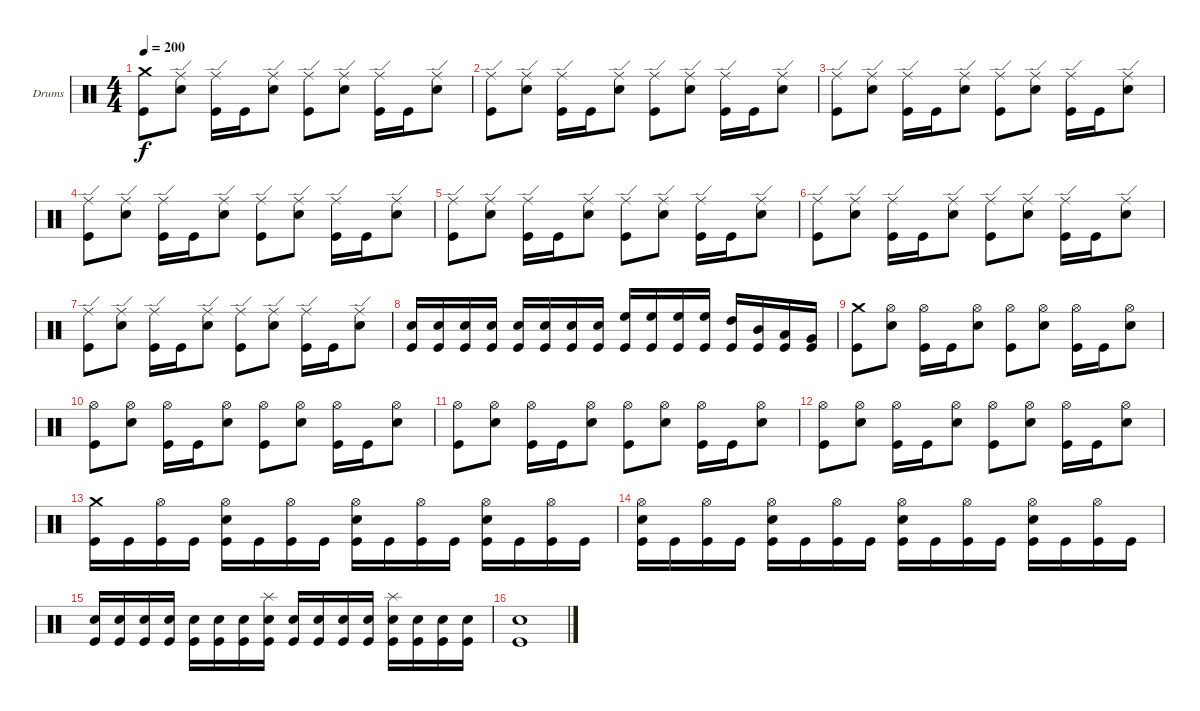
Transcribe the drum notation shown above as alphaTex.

\bracketExtendMode groupsimilarinstruments
\firstSystemTrackNameOrientation horizontal
\otherSystemsTrackNameOrientation horizontal
\track ("Drumkit" "Drums") {instrument percussion}
\staff {score}
\articulation defaults
\ts (4 4)
\section ("" "")
\tempo 200
\clef neutral
\ks aminor
("Kick (hit)" "Crash medium (hit)").8{dy f} ("Snare (hit) 2" "Ride (edge)").8 ("Kick (hit)" "Ride (edge)").16 "Kick (hit)".16 ("Snare (hit) 2" "Ride (edge)").8 ("Kick (hit)" "Ride (edge)").8 ("Snare (hit) 2" "Ride (edge)").8 ("Kick (hit)" "Ride (edge)").16 "Kick (hit)".16 ("Snare (hit) 2" "Ride (edge)").8 |
("Kick (hit)" "Ride (edge)").8 ("Snare (hit) 2" "Ride (edge)").8 ("Kick (hit)" "Ride (edge)").16 "Kick (hit)".16 ("Snare (hit) 2" "Ride (edge)").8 ("Kick (hit)" "Ride (edge)").8 ("Snare (hit) 2" "Ride (edge)").8 ("Kick (hit)" "Ride (edge)").16 "Kick (hit)".16 ("Snare (hit) 2" "Ride (edge)").8 |
("Kick (hit)" "Ride (edge)").8 ("Snare (hit) 2" "Ride (edge)").8 ("Kick (hit)" "Ride (edge)").16 "Kick (hit)".16 ("Snare (hit) 2" "Ride (edge)").8 ("Kick (hit)" "Ride (edge)").8 ("Snare (hit) 2" "Ride (edge)").8 ("Kick (hit)" "Ride (edge)").16 "Kick (hit)".16 ("Snare (hit) 2" "Ride (edge)").8 |
("Kick (hit)" "Ride (edge)").8 ("Snare (hit) 2" "Ride (edge)").8 ("Kick (hit)" "Ride (edge)").16 "Kick (hit)".16 ("Snare (hit) 2" "Ride (edge)").8 ("Kick (hit)" "Ride (edge)").8 ("Snare (hit) 2" "Ride (edge)").8 ("Kick (hit)" "Ride (edge)").16 "Kick (hit)".16 ("Snare (hit) 2" "Ride (edge)").8 |
("Kick (hit)" "Ride (edge)").8 ("Snare (hit) 2" "Ride (edge)").8 ("Kick (hit)" "Ride (edge)").16 "Kick (hit)".16 ("Snare (hit) 2" "Ride (edge)").8 ("Kick (hit)" "Ride (edge)").8 ("Snare (hit) 2" "Ride (edge)").8 ("Kick (hit)" "Ride (edge)").16 "Kick (hit)".16 ("Snare (hit) 2" "Ride (edge)").8 |
("Kick (hit)" "Ride (edge)").8 ("Snare (hit) 2" "Ride (edge)").8 ("Kick (hit)" "Ride (edge)").16 "Kick (hit)".16 ("Snare (hit) 2" "Ride (edge)").8 ("Kick (hit)" "Ride (edge)").8 ("Snare (hit) 2" "Ride (edge)").8 ("Kick (hit)" "Ride (edge)").16 "Kick (hit)".16 ("Snare (hit) 2" "Ride (edge)").8 |
("Kick (hit)" "Ride (edge)").8 ("Snare (hit) 2" "Ride (edge)").8 ("Kick (hit)" "Ride (edge)").16 "Kick (hit)".16 ("Snare (hit) 2" "Ride (edge)").8 ("Kick (hit)" "Ride (edge)").8 ("Snare (hit) 2" "Ride (edge)").8 ("Kick (hit)" "Ride (edge)").16 "Kick (hit)".16 ("Snare (hit) 2" "Ride (edge)").8 |
("Kick (hit)" "Snare (hit) 2").16 ("Kick (hit)" "Snare (hit) 2").16 ("Kick (hit)" "Snare (hit) 2").16 ("Kick (hit)" "Snare (hit) 2").16 ("Kick (hit)" "Snare (hit) 2").16 ("Kick (hit)" "Snare (hit) 2").16 ("Kick (hit)" "Snare (hit) 2").16 ("Kick (hit)" "Snare (hit) 2").16 ("Kick (hit)" "High Floor Tom (hit)").16 ("Kick (hit)" "High Floor Tom (hit)").16 ("Kick (hit)" "High Floor Tom (hit)").16 ("Kick (hit)" "High Floor Tom (hit)").16 ("Kick (hit)" "High Tom (hit)").16 ("Kick (hit)" "Mid Tom (hit)").16 ("Kick (hit)" "Low Tom (hit)").16 ("Kick (hit)" "Very Low Tom (hit)").16 |
\section ("" "")
("Kick (hit)" "Crash medium (hit)").8 ("Snare (hit) 2" "Hi-Hat (open)").8 ("Kick (hit)" "Hi-Hat (open)").16 "Kick (hit)".16 ("Snare (hit) 2" "Hi-Hat (open)").8 ("Kick (hit)" "Hi-Hat (open)").8 ("Snare (hit) 2" "Hi-Hat (open)").8 ("Kick (hit)" "Hi-Hat (open)").16 "Kick (hit)".16 ("Snare (hit) 2" "Hi-Hat (open)").8 |
("Kick (hit)" "Hi-Hat (open)").8 ("Snare (hit) 2" "Hi-Hat (open)").8 ("Kick (hit)" "Hi-Hat (open)").16 "Kick (hit)".16 ("Snare (hit) 2" "Hi-Hat (open)").8 ("Kick (hit)" "Hi-Hat (open)").8 ("Snare (hit) 2" "Hi-Hat (open)").8 ("Kick (hit)" "Hi-Hat (open)").16 "Kick (hit)".16 ("Snare (hit) 2" "Hi-Hat (open)").8 |
("Kick (hit)" "Hi-Hat (open)").8 ("Snare (hit) 2" "Hi-Hat (open)").8 ("Kick (hit)" "Hi-Hat (open)").16 "Kick (hit)".16 ("Snare (hit) 2" "Hi-Hat (open)").8 ("Kick (hit)" "Hi-Hat (open)").8 ("Snare (hit) 2" "Hi-Hat (open)").8 ("Kick (hit)" "Hi-Hat (open)").16 "Kick (hit)".16 ("Snare (hit) 2" "Hi-Hat (open)").8 |
("Kick (hit)" "Hi-Hat (open)").8 ("Snare (hit) 2" "Hi-Hat (open)").8 ("Kick (hit)" "Hi-Hat (open)").16 "Kick (hit)".16 ("Snare (hit) 2" "Hi-Hat (open)").8 ("Kick (hit)" "Hi-Hat (open)").8 ("Snare (hit) 2" "Hi-Hat (open)").8 ("Kick (hit)" "Hi-Hat (open)").16 "Kick (hit)".16 ("Snare (hit) 2" "Hi-Hat (open)").8 |
("Kick (hit)" "Crash medium (hit)").16 "Kick (hit)".16 ("Kick (hit)" "Hi-Hat (open)").16 "Kick (hit)".16 ("Kick (hit)" "Snare (hit) 2" "Hi-Hat (open)").16 "Kick (hit)".16 ("Kick (hit)" "Hi-Hat (open)").16 "Kick (hit)".16 ("Kick (hit)" "Snare (hit) 2" "Hi-Hat (open)").16 "Kick (hit)".16 ("Kick (hit)" "Hi-Hat (open)").16 "Kick (hit)".16 ("Kick (hit)" "Snare (hit) 2" "Hi-Hat (open)").16 "Kick (hit)".16 ("Kick (hit)" "Hi-Hat (open)").16 "Kick (hit)".16 |
("Kick (hit)" "Snare (hit) 2" "Hi-Hat (open)").16 "Kick (hit)".16 ("Kick (hit)" "Hi-Hat (open)").16 "Kick (hit)".16 ("Kick (hit)" "Snare (hit) 2" "Hi-Hat (open)").16 "Kick (hit)".16 ("Kick (hit)" "Hi-Hat (open)").16 "Kick (hit)".16 ("Kick (hit)" "Snare (hit) 2" "Hi-Hat (open)").16 "Kick (hit)".16 ("Kick (hit)" "Hi-Hat (open)").16 "Kick (hit)".16 ("Kick (hit)" "Snare (hit) 2" "Hi-Hat (open)").16 "Kick (hit)".16 ("Kick (hit)" "Hi-Hat (open)").16 "Kick (hit)".16 |
("Kick (hit)" "Snare (hit) 2").16 ("Kick (hit)" "Snare (hit) 2").16 ("Kick (hit)" "Snare (hit) 2").16 ("Kick (hit)" "Snare (hit) 2").16 ("Kick (hit)" "Snare (hit) 2").16 ("Kick (hit)" "Snare (hit) 2").16 ("Kick (hit)" "Snare (hit) 2").16 ("Kick (hit)" "Snare (hit) 2" "Splash (hit)").16 ("Kick (hit)" "Snare (hit) 2").16 ("Kick (hit)" "Snare (hit) 2").16 ("Kick (hit)" "Snare (hit) 2").16 ("Kick (hit)" "Snare (hit) 2").16 ("Kick (hit)" "Snare (hit) 2" "Splash (hit)").16 ("Kick (hit)" "Snare (hit) 2").16 ("Kick (hit)" "Snare (hit) 2").16 ("Kick (hit)" "Snare (hit) 2").16 |
("Kick (hit)" "Snare (hit) 2").1
